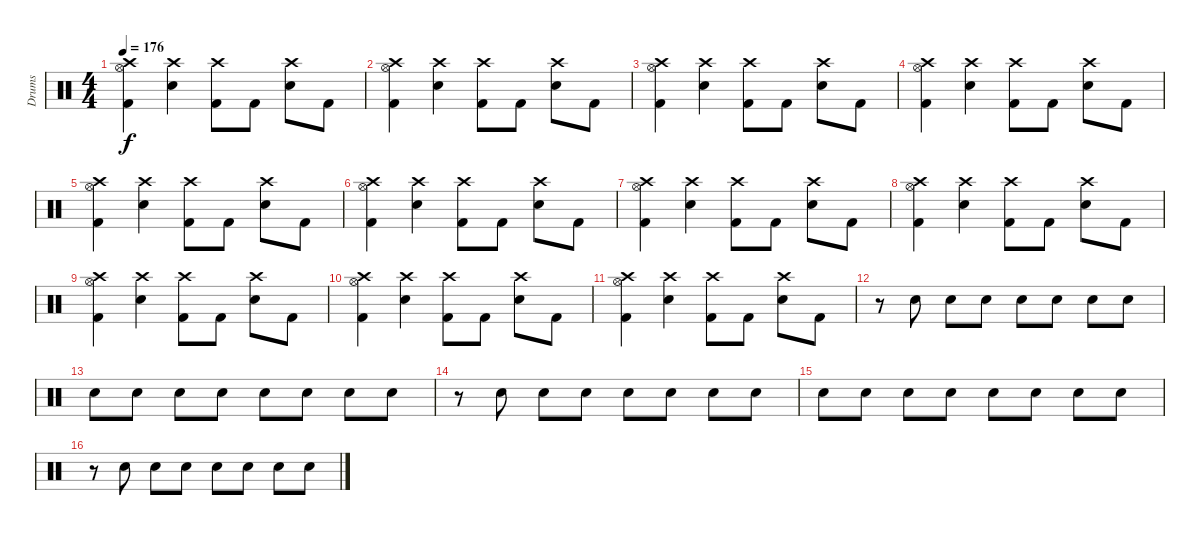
\track ("Drums" "Drums") {instrument percussion}
\staff {score}
\articulation defaults
\ts (4 4)
\tempo 176
\clef neutral
\ks c
("Kick (hit) 2" "Hi-Hat (open)" "Crash high (hit)").4{dy f} ("Snare (hit) 2" "Crash high (hit)").4 ("Kick (hit) 2" "Crash high (hit)").8 "Kick (hit) 2".8 ("Snare (hit) 2" "Crash high (hit)").8 "Kick (hit) 2".8 |
("Kick (hit) 2" "Hi-Hat (open)" "Crash high (hit)").4 ("Snare (hit) 2" "Crash high (hit)").4 ("Kick (hit) 2" "Crash high (hit)").8 "Kick (hit) 2".8 ("Snare (hit) 2" "Crash high (hit)").8 "Kick (hit) 2".8 |
("Kick (hit) 2" "Hi-Hat (open)" "Crash high (hit)").4 ("Snare (hit) 2" "Crash high (hit)").4 ("Kick (hit) 2" "Crash high (hit)").8 "Kick (hit) 2".8 ("Snare (hit) 2" "Crash high (hit)").8 "Kick (hit) 2".8 |
("Kick (hit) 2" "Hi-Hat (open)" "Crash high (hit)").4 ("Snare (hit) 2" "Crash high (hit)").4 ("Kick (hit) 2" "Crash high (hit)").8 "Kick (hit) 2".8 ("Snare (hit) 2" "Crash high (hit)").8 "Kick (hit) 2".8 |
("Kick (hit) 2" "Hi-Hat (open)" "Crash high (hit)").4 ("Snare (hit) 2" "Crash high (hit)").4 ("Kick (hit) 2" "Crash high (hit)").8 "Kick (hit) 2".8 ("Snare (hit) 2" "Crash high (hit)").8 "Kick (hit) 2".8 |
("Kick (hit) 2" "Hi-Hat (open)" "Crash high (hit)").4 ("Snare (hit) 2" "Crash high (hit)").4 ("Kick (hit) 2" "Crash high (hit)").8 "Kick (hit) 2".8 ("Snare (hit) 2" "Crash high (hit)").8 "Kick (hit) 2".8 |
("Kick (hit) 2" "Hi-Hat (open)" "Crash high (hit)").4 ("Snare (hit) 2" "Crash high (hit)").4 ("Kick (hit) 2" "Crash high (hit)").8 "Kick (hit) 2".8 ("Snare (hit) 2" "Crash high (hit)").8 "Kick (hit) 2".8 |
("Kick (hit) 2" "Hi-Hat (open)" "Crash high (hit)").4 ("Snare (hit) 2" "Crash high (hit)").4 ("Kick (hit) 2" "Crash high (hit)").8 "Kick (hit) 2".8 ("Snare (hit) 2" "Crash high (hit)").8 "Kick (hit) 2".8 |
("Kick (hit) 2" "Hi-Hat (open)" "Crash high (hit)").4 ("Snare (hit) 2" "Crash high (hit)").4 ("Kick (hit) 2" "Crash high (hit)").8 "Kick (hit) 2".8 ("Snare (hit) 2" "Crash high (hit)").8 "Kick (hit) 2".8 |
("Kick (hit) 2" "Hi-Hat (open)" "Crash high (hit)").4 ("Snare (hit) 2" "Crash high (hit)").4 ("Kick (hit) 2" "Crash high (hit)").8 "Kick (hit) 2".8 ("Snare (hit) 2" "Crash high (hit)").8 "Kick (hit) 2".8 |
("Kick (hit) 2" "Hi-Hat (open)" "Crash high (hit)").4 ("Snare (hit) 2" "Crash high (hit)").4 ("Kick (hit) 2" "Crash high (hit)").8 "Kick (hit) 2".8 ("Snare (hit) 2" "Crash high (hit)").8 "Kick (hit) 2".8 |
r.8 "Snare (hit) 2".8 "Snare (hit) 2".8 "Snare (hit) 2".8 "Snare (hit) 2".8 "Snare (hit) 2".8 "Snare (hit) 2".8 "Snare (hit) 2".8 |
"Snare (hit) 2".8 "Snare (hit) 2".8 "Snare (hit) 2".8 "Snare (hit) 2".8 "Snare (hit) 2".8 "Snare (hit) 2".8 "Snare (hit) 2".8 "Snare (hit) 2".8 |
r.8 "Snare (hit) 2".8 "Snare (hit) 2".8 "Snare (hit) 2".8 "Snare (hit) 2".8 "Snare (hit) 2".8 "Snare (hit) 2".8 "Snare (hit) 2".8 |
"Snare (hit) 2".8 "Snare (hit) 2".8 "Snare (hit) 2".8 "Snare (hit) 2".8 "Snare (hit) 2".8 "Snare (hit) 2".8 "Snare (hit) 2".8 "Snare (hit) 2".8 |
r.8 "Snare (hit) 2".8 "Snare (hit) 2".8 "Snare (hit) 2".8 "Snare (hit) 2".8 "Snare (hit) 2".8 "Snare (hit) 2".8 "Snare (hit) 2".8
